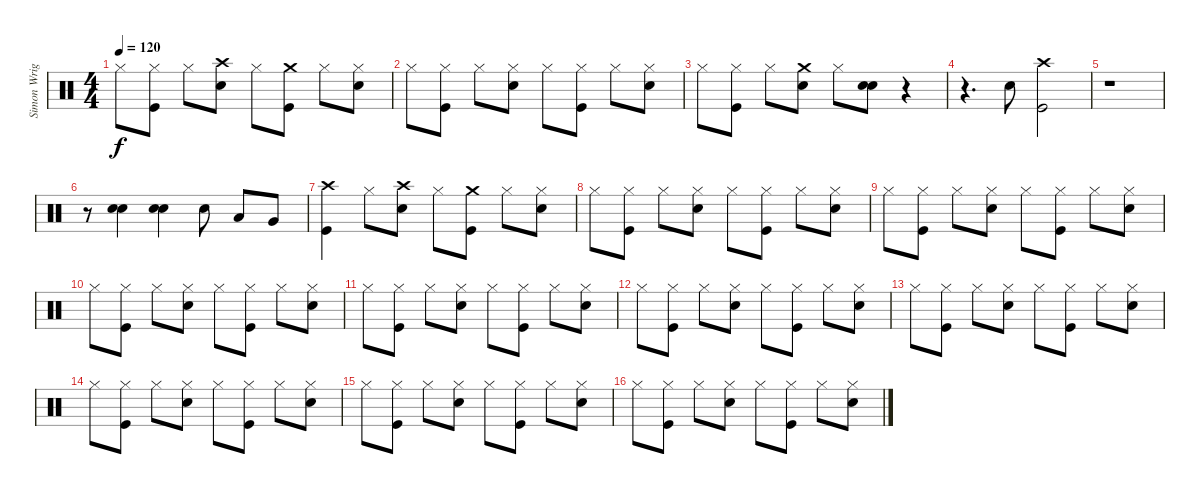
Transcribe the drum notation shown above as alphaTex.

\track ("Simon Wright" "Simon Wrig") {instrument percussion}
\staff {score}
\articulation defaults
\ts (4 4)
\tempo 120
\clef neutral
\ks c "Hi-Hat (closed)".8{dy f}
("Hi-Hat (closed)" "Kick (hit)").8 "Hi-Hat (closed)".8 ("Crash high (hit)" "Electric Snare (hit)").8 "Hi-Hat (closed)".8 ("Crash medium (hit)" "Kick (hit)").8 "Hi-Hat (closed)".8 ("Hi-Hat (closed)" "Electric Snare (hit)").8 |
"Hi-Hat (closed)".8 ("Hi-Hat (closed)" "Kick (hit)").8 "Hi-Hat (closed)".8 ("Hi-Hat (closed)" "Electric Snare (hit)").8 "Hi-Hat (closed)".8 ("Hi-Hat (closed)" "Kick (hit)").8 "Hi-Hat (closed)".8 ("Hi-Hat (closed)" "Electric Snare (hit)").8 |
"Hi-Hat (closed)".8 ("Hi-Hat (closed)" "Kick (hit)").8 "Hi-Hat (closed)".8 ("Crash medium (hit)" "Electric Snare (hit)").8 "Hi-Hat (closed)".8 ("Electric Snare (hit)" "Electric Snare (hit)").8 r.4 |
r.4{d} "Electric Snare (hit)".8 ("Crash high (hit)" "Kick (hit)").2 |
r.1 |
r.8 ("Electric Snare (hit)" "Electric Snare (hit)").4 ("Electric Snare (hit)" "Electric Snare (hit)").4 "Electric Snare (hit)".8 "Low Tom (hit)".8 "Very Low Tom (hit)".8 |
("Crash high (hit)" "Kick (hit)").4 "Hi-Hat (closed)".8 ("Crash high (hit)" "Electric Snare (hit)").8 "Hi-Hat (closed)".8 ("Crash medium (hit)" "Kick (hit)").8 "Hi-Hat (closed)".8 ("Hi-Hat (closed)" "Electric Snare (hit)").8 |
"Hi-Hat (closed)".8 ("Hi-Hat (closed)" "Kick (hit)").8 "Hi-Hat (closed)".8 ("Hi-Hat (closed)" "Electric Snare (hit)").8 "Hi-Hat (closed)".8 ("Hi-Hat (closed)" "Kick (hit)").8 "Hi-Hat (closed)".8 ("Hi-Hat (closed)" "Electric Snare (hit)").8 |
"Hi-Hat (closed)".8 ("Hi-Hat (closed)" "Kick (hit)").8 "Hi-Hat (closed)".8 ("Hi-Hat (closed)" "Electric Snare (hit)").8 "Hi-Hat (closed)".8 ("Hi-Hat (closed)" "Kick (hit)").8 "Hi-Hat (closed)".8 ("Hi-Hat (closed)" "Electric Snare (hit)").8 |
"Hi-Hat (closed)".8 ("Hi-Hat (closed)" "Kick (hit)").8 "Hi-Hat (closed)".8 ("Hi-Hat (closed)" "Electric Snare (hit)").8 "Hi-Hat (closed)".8 ("Hi-Hat (closed)" "Kick (hit)").8 "Hi-Hat (closed)".8 ("Hi-Hat (closed)" "Electric Snare (hit)").8 |
"Hi-Hat (closed)".8 ("Hi-Hat (closed)" "Kick (hit)").8 "Hi-Hat (closed)".8 ("Hi-Hat (closed)" "Electric Snare (hit)").8 "Hi-Hat (closed)".8 ("Hi-Hat (closed)" "Kick (hit)").8 "Hi-Hat (closed)".8 ("Hi-Hat (closed)" "Electric Snare (hit)").8 |
"Hi-Hat (closed)".8 ("Hi-Hat (closed)" "Kick (hit)").8 "Hi-Hat (closed)".8 ("Hi-Hat (closed)" "Electric Snare (hit)").8 "Hi-Hat (closed)".8 ("Hi-Hat (closed)" "Kick (hit)").8 "Hi-Hat (closed)".8 ("Hi-Hat (closed)" "Electric Snare (hit)").8 |
"Hi-Hat (closed)".8 ("Hi-Hat (closed)" "Kick (hit)").8 "Hi-Hat (closed)".8 ("Hi-Hat (closed)" "Electric Snare (hit)").8 "Hi-Hat (closed)".8 ("Hi-Hat (closed)" "Kick (hit)").8 "Hi-Hat (closed)".8 ("Hi-Hat (closed)" "Electric Snare (hit)").8 |
"Hi-Hat (closed)".8 ("Hi-Hat (closed)" "Kick (hit)").8 "Hi-Hat (closed)".8 ("Hi-Hat (closed)" "Electric Snare (hit)").8 "Hi-Hat (closed)".8 ("Hi-Hat (closed)" "Kick (hit)").8 "Hi-Hat (closed)".8 ("Hi-Hat (closed)" "Electric Snare (hit)").8 |
"Hi-Hat (closed)".8 ("Hi-Hat (closed)" "Kick (hit)").8 "Hi-Hat (closed)".8 ("Hi-Hat (closed)" "Electric Snare (hit)").8 "Hi-Hat (closed)".8 ("Hi-Hat (closed)" "Kick (hit)").8 "Hi-Hat (closed)".8 ("Hi-Hat (closed)" "Electric Snare (hit)").8 |
"Hi-Hat (closed)".8 ("Hi-Hat (closed)" "Kick (hit)").8 "Hi-Hat (closed)".8 ("Hi-Hat (closed)" "Electric Snare (hit)").8 "Hi-Hat (closed)".8 ("Hi-Hat (closed)" "Kick (hit)").8 "Hi-Hat (closed)".8 ("Hi-Hat (closed)" "Electric Snare (hit)").8
